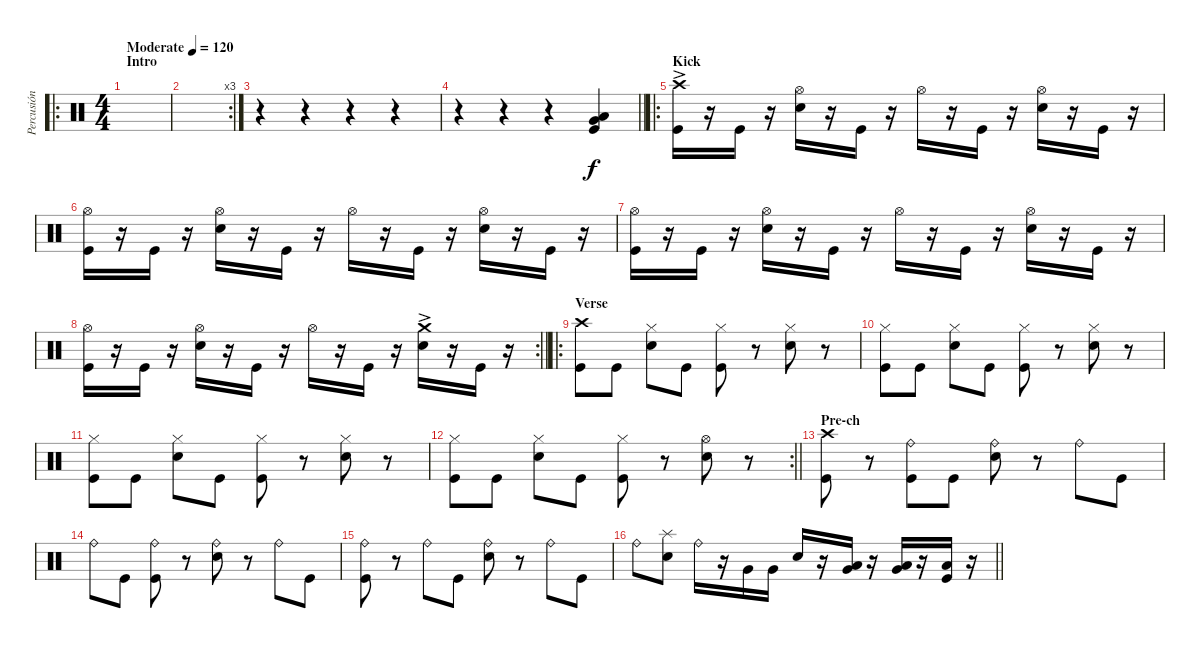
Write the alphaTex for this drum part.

\track ("Percusión" "Percusión") {instrument percussion}
\staff {score}
\articulation defaults
\ro
\ts (4 4)
\section ("" "Intro")
\tempo (120 "Moderate")
\clef neutral
\ks c
|
\rc 3
|
r.4 r.4 r.4 r.4 |
\barLineRight lightlight
r.4 r.4 r.4 ("Very Low Tom (hit)" "Kick (hit)" "Low Floor Tom (hit)").4 |
\ro
\section ("" "Kick")
("Crash high (hit)"{ac} "Kick (hit)").16 r.16 "Kick (hit)".16 r.16 ("Hi-Hat (open)" "Electric Snare (hit)").16 r.16 "Kick (hit)".16 r.16 "Hi-Hat (open)".16 r.16 "Kick (hit)".16 r.16 ("Hi-Hat (open)" "Electric Snare (hit)").16 r.16 "Kick (hit)".16 r.16 |
("Hi-Hat (open)" "Kick (hit)").16 r.16 "Kick (hit)".16 r.16 ("Hi-Hat (open)" "Electric Snare (hit)").16 r.16 "Kick (hit)".16 r.16 "Hi-Hat (open)".16 r.16 "Kick (hit)".16 r.16 ("Hi-Hat (open)" "Electric Snare (hit)").16 r.16 "Kick (hit)".16 r.16 |
("Hi-Hat (open)" "Kick (hit)").16 r.16 "Kick (hit)".16 r.16 ("Hi-Hat (open)" "Electric Snare (hit)").16 r.16 "Kick (hit)".16 r.16 "Hi-Hat (open)".16 r.16 "Kick (hit)".16 r.16 ("Hi-Hat (open)" "Electric Snare (hit)").16 r.16 "Kick (hit)".16 r.16 |
\rc 2
\barLineRight lightlight
("Hi-Hat (open)" "Kick (hit)").16 r.16 "Kick (hit)".16 r.16 ("Hi-Hat (open)" "Electric Snare (hit)").16 r.16 "Kick (hit)".16 r.16 "Hi-Hat (open)".16 r.16 "Kick (hit)".16 r.16 ("Crash medium (hit)"{ac} "Electric Snare (hit)").16 r.16 "Kick (hit)".16 r.16 |
\ro
\section ("" "Verse")
("Crash high (hit)" "Kick (hit)").8 "Kick (hit)".8 ("Hi-Hat (closed)" "Electric Snare (hit)").8 "Kick (hit)".8 ("Hi-Hat (closed)" "Kick (hit)").8 r.8 ("Hi-Hat (closed)" "Electric Snare (hit)").8 r.8 |
("Hi-Hat (closed)" "Kick (hit)").8 "Kick (hit)".8 ("Hi-Hat (closed)" "Electric Snare (hit)").8 "Kick (hit)".8 ("Hi-Hat (closed)" "Kick (hit)").8 r.8 ("Hi-Hat (closed)" "Electric Snare (hit)").8 r.8 |
("Hi-Hat (closed)" "Kick (hit)").8 "Kick (hit)".8 ("Hi-Hat (closed)" "Electric Snare (hit)").8 "Kick (hit)".8 ("Hi-Hat (closed)" "Kick (hit)").8 r.8 ("Hi-Hat (closed)" "Electric Snare (hit)").8 r.8 |
\rc 2
\barLineRight lightlight
("Hi-Hat (closed)" "Kick (hit)").8 "Kick (hit)".8 ("Hi-Hat (closed)" "Electric Snare (hit)").8 "Kick (hit)".8 ("Hi-Hat (closed)" "Kick (hit)").8 r.8 ("Hi-Hat (open)" "Electric Snare (hit)").8 r.8 |
\section ("" "Pre-ch")
("Kick (hit)" "Crash high (hit)").8 r.8 ("Ride (bell)" "Kick (hit)").8 "Kick (hit)".8 ("Ride (bell)" "Electric Snare (hit)").8 r.8 "Ride (bell)".8 "Kick (hit)".8 |
"Ride (bell)".8 "Kick (hit)".8 ("Ride (bell)" "Kick (hit)").8 r.8 ("Ride (bell)" "Electric Snare (hit)").8 r.8 "Ride (bell)".8 "Kick (hit)".8 |
("Ride (bell)" "Kick (hit)").8 r.8 "Ride (bell)".8 "Kick (hit)".8 ("Ride (bell)" "Electric Snare (hit)").8 r.8 "Ride (bell)".8 "Kick (hit)".8 |
\barLineRight lightlight "Ride (bell)".8
("Splash (hit)" "Electric Snare (hit)").8 "Ride (bell)".16 r.16 "Very Low Tom (hit)".16 "Very Low Tom (hit)".16 "Electric Snare (hit)".16 r.16 ("Low Tom (hit)" "Very Low Tom (hit)").16 r.16 ("Very Low Tom (hit)" "Low Floor Tom (hit)").16 r.16 ("Low Floor Tom (hit)" "Kick (hit)").16 r.16
